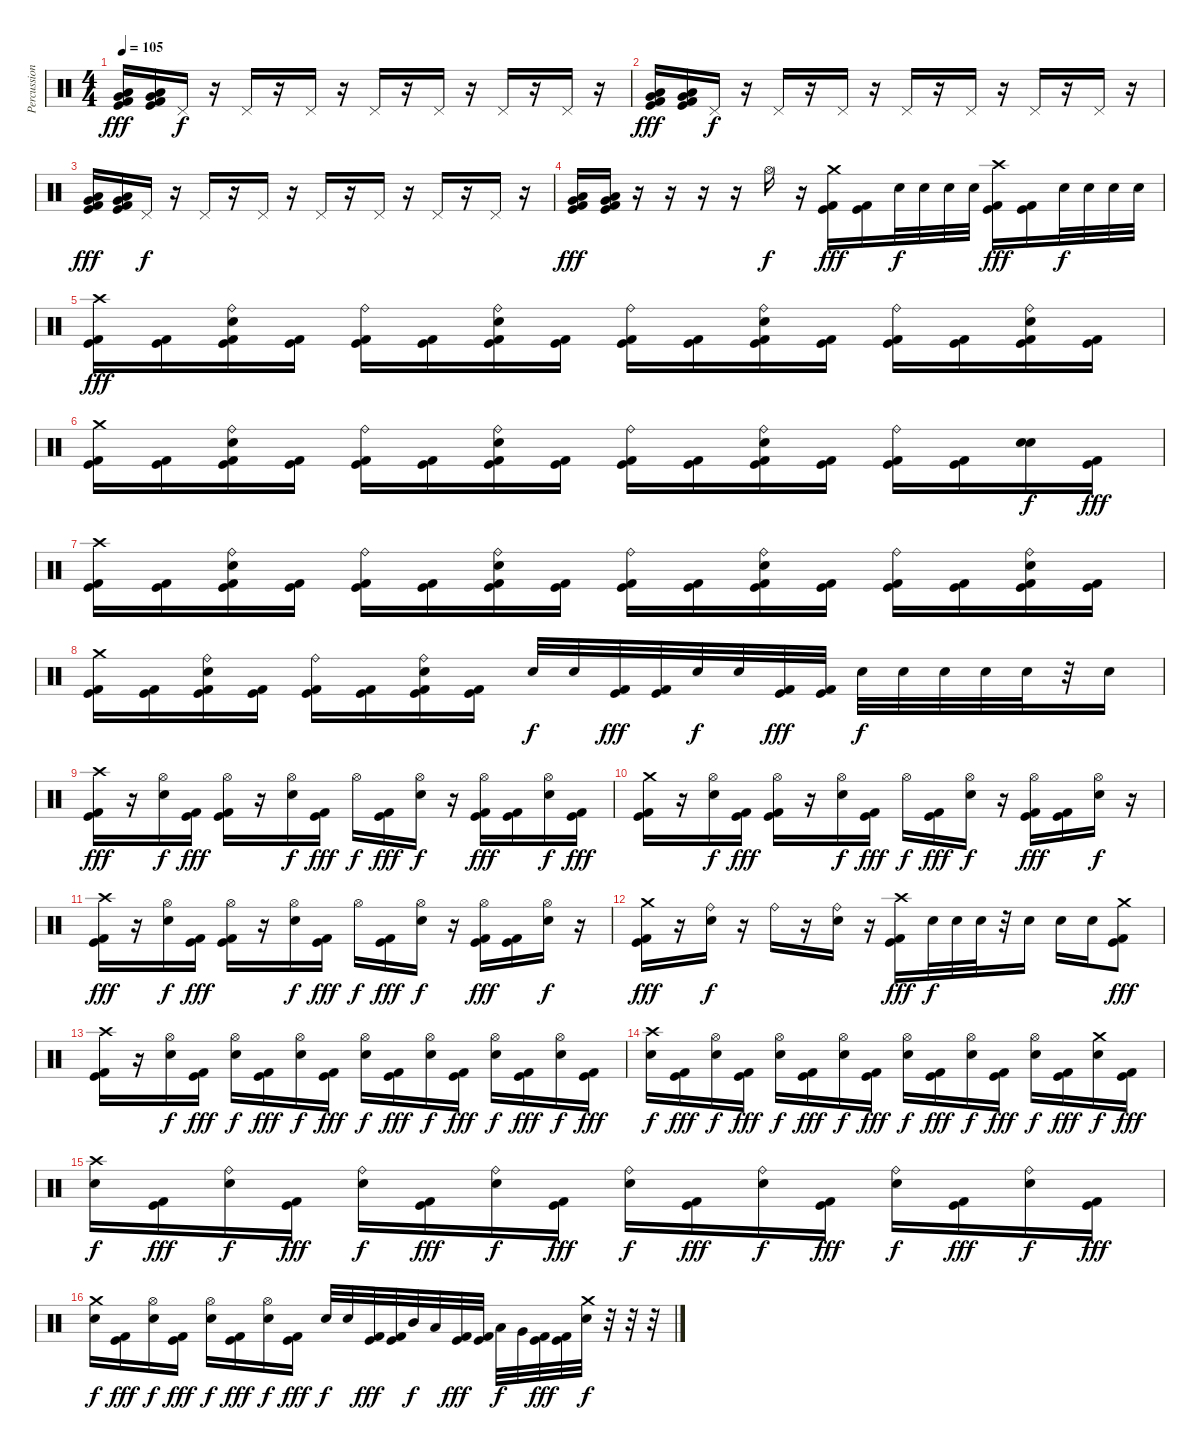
\track ("Percussion" "Percussion") {instrument percussion}
\staff {score}
\articulation defaults
\ts (4 4)
\tempo 105
\clef neutral
\ks c
("Very Low Tom (hit)" "Low Tom (hit)" "Kick (hit)" "Kick (hit) 2").16{dy fff} ("Very Low Tom (hit)" "Low Tom (hit)" "Kick (hit)" "Kick (hit) 2").16 "Pedal Hi-Hat (hit)".16{dy f} r.16 "Pedal Hi-Hat (hit)".16 r.16 "Pedal Hi-Hat (hit)".16 r.16 "Pedal Hi-Hat (hit)".16 r.16 "Pedal Hi-Hat (hit)".16 r.16 "Pedal Hi-Hat (hit)".16 r.16 "Pedal Hi-Hat (hit)".16 r.16 |
("Very Low Tom (hit)" "Low Tom (hit)" "Kick (hit)" "Kick (hit) 2").16{dy fff} ("Very Low Tom (hit)" "Low Tom (hit)" "Kick (hit)" "Kick (hit) 2").16 "Pedal Hi-Hat (hit)".16{dy f} r.16 "Pedal Hi-Hat (hit)".16 r.16 "Pedal Hi-Hat (hit)".16 r.16 "Pedal Hi-Hat (hit)".16 r.16 "Pedal Hi-Hat (hit)".16 r.16 "Pedal Hi-Hat (hit)".16 r.16 "Pedal Hi-Hat (hit)".16 r.16 |
("Very Low Tom (hit)" "Low Tom (hit)" "Kick (hit)" "Kick (hit) 2").16{dy fff} ("Very Low Tom (hit)" "Low Tom (hit)" "Kick (hit)" "Kick (hit) 2").16 "Pedal Hi-Hat (hit)".16{dy f} r.16 "Pedal Hi-Hat (hit)".16 r.16 "Pedal Hi-Hat (hit)".16 r.16 "Pedal Hi-Hat (hit)".16 r.16 "Pedal Hi-Hat (hit)".16 r.16 "Pedal Hi-Hat (hit)".16 r.16 "Pedal Hi-Hat (hit)".16 r.16 |
("Very Low Tom (hit)" "Low Tom (hit)" "Kick (hit)" "Kick (hit) 2").16{dy fff} ("Very Low Tom (hit)" "Low Tom (hit)" "Kick (hit)" "Kick (hit) 2").16 r.16 r.16 r.16 r.16 "Hi-Hat (open)".16{dy f} r.16 ("Crash medium (hit)" "Kick (hit)" "Kick (hit) 2").16{dy fff} ("Kick (hit)" "Kick (hit) 2").16 "Electric Snare (hit)".32{dy f} "Electric Snare (hit)".32 "Electric Snare (hit)".32 "Electric Snare (hit)".32 ("Crash high (hit)" "Kick (hit)" "Kick (hit) 2").16{dy fff} ("Kick (hit)" "Kick (hit) 2").16 "Electric Snare (hit)".32{dy f} "Electric Snare (hit)".32 "Electric Snare (hit)".32 "Electric Snare (hit)".32 |
("Crash high (hit)" "Kick (hit)" "Kick (hit) 2").16{dy fff} ("Kick (hit)" "Kick (hit) 2").16 ("Ride (bell)" "Electric Snare (hit)" "Kick (hit)" "Kick (hit) 2").16 ("Kick (hit)" "Kick (hit) 2").16 ("Ride (bell)" "Kick (hit)" "Kick (hit) 2").16 ("Kick (hit)" "Kick (hit) 2").16 ("Ride (bell)" "Electric Snare (hit)" "Kick (hit)" "Kick (hit) 2").16 ("Kick (hit)" "Kick (hit) 2").16 ("Ride (bell)" "Kick (hit)" "Kick (hit) 2").16 ("Kick (hit)" "Kick (hit) 2").16 ("Ride (bell)" "Electric Snare (hit)" "Kick (hit)" "Kick (hit) 2").16 ("Kick (hit)" "Kick (hit) 2").16 ("Ride (bell)" "Kick (hit)" "Kick (hit) 2").16 ("Kick (hit)" "Kick (hit) 2").16 ("Ride (bell)" "Electric Snare (hit)" "Kick (hit)" "Kick (hit) 2").16 ("Kick (hit)" "Kick (hit) 2").16 |
("Crash medium (hit)" "Kick (hit)" "Kick (hit) 2").16 ("Kick (hit)" "Kick (hit) 2").16 ("Ride (bell)" "Electric Snare (hit)" "Kick (hit)" "Kick (hit) 2").16 ("Kick (hit)" "Kick (hit) 2").16 ("Ride (bell)" "Kick (hit)" "Kick (hit) 2").16 ("Kick (hit)" "Kick (hit) 2").16 ("Ride (bell)" "Electric Snare (hit)" "Kick (hit)" "Kick (hit) 2").16 ("Kick (hit)" "Kick (hit) 2").16 ("Ride (bell)" "Kick (hit)" "Kick (hit) 2").16 ("Kick (hit)" "Kick (hit) 2").16 ("Ride (bell)" "Electric Snare (hit)" "Kick (hit)" "Kick (hit) 2").16 ("Kick (hit)" "Kick (hit) 2").16 ("Ride (bell)" "Kick (hit)" "Kick (hit) 2").16 ("Kick (hit)" "Kick (hit) 2").16 ("Electric Snare (hit)" "Electric Snare (hit)").16{bu 60 dy f} ("Kick (hit)" "Kick (hit) 2").16{dy fff} |
("Crash high (hit)" "Kick (hit)" "Kick (hit) 2").16 ("Kick (hit)" "Kick (hit) 2").16 ("Ride (bell)" "Electric Snare (hit)" "Kick (hit)" "Kick (hit) 2").16 ("Kick (hit)" "Kick (hit) 2").16 ("Ride (bell)" "Kick (hit)" "Kick (hit) 2").16 ("Kick (hit)" "Kick (hit) 2").16 ("Ride (bell)" "Electric Snare (hit)" "Kick (hit)" "Kick (hit) 2").16 ("Kick (hit)" "Kick (hit) 2").16 ("Ride (bell)" "Kick (hit)" "Kick (hit) 2").16 ("Kick (hit)" "Kick (hit) 2").16 ("Ride (bell)" "Electric Snare (hit)" "Kick (hit)" "Kick (hit) 2").16 ("Kick (hit)" "Kick (hit) 2").16 ("Ride (bell)" "Kick (hit)" "Kick (hit) 2").16 ("Kick (hit)" "Kick (hit) 2").16 ("Ride (bell)" "Electric Snare (hit)" "Kick (hit)" "Kick (hit) 2").16 ("Kick (hit)" "Kick (hit) 2").16 |
("Crash medium (hit)" "Kick (hit)" "Kick (hit) 2").16 ("Kick (hit)" "Kick (hit) 2").16 ("Ride (bell)" "Electric Snare (hit)" "Kick (hit)" "Kick (hit) 2").16 ("Kick (hit)" "Kick (hit) 2").16 ("Ride (bell)" "Kick (hit)" "Kick (hit) 2").16 ("Kick (hit)" "Kick (hit) 2").16 ("Ride (bell)" "Electric Snare (hit)" "Kick (hit)" "Kick (hit) 2").16 ("Kick (hit)" "Kick (hit) 2").16 "Electric Snare (hit)".32{dy f} "Electric Snare (hit)".32 ("Kick (hit)" "Kick (hit) 2").32{dy fff} ("Kick (hit)" "Kick (hit) 2").32 "Electric Snare (hit)".32{dy f} "Electric Snare (hit)".32 ("Kick (hit)" "Kick (hit) 2").32{dy fff} ("Kick (hit)" "Kick (hit) 2").32 "Electric Snare (hit)".32{dy f} "Electric Snare (hit)".32 "Electric Snare (hit)".32 "Electric Snare (hit)".32 "Electric Snare (hit)".32 r.32 "Electric Snare (hit)".16 |
("Crash high (hit)" "Kick (hit)" "Kick (hit) 2").16{dy fff} r.16 ("Hi-Hat (open)" "Electric Snare (hit)").16{dy f} ("Kick (hit)" "Kick (hit) 2").16{dy fff} ("Hi-Hat (open)" "Kick (hit)" "Kick (hit) 2").16 r.16 ("Hi-Hat (open)" "Electric Snare (hit)").16{dy f} ("Kick (hit)" "Kick (hit) 2").16{dy fff} "Hi-Hat (open)".16{dy f} ("Kick (hit)" "Kick (hit) 2").16{dy fff} ("Hi-Hat (open)" "Electric Snare (hit)").16{dy f} r.16 ("Hi-Hat (open)" "Kick (hit)" "Kick (hit) 2").16{dy fff} ("Kick (hit)" "Kick (hit) 2").16 ("Hi-Hat (open)" "Electric Snare (hit)").16{dy f} ("Kick (hit)" "Kick (hit) 2").16{dy fff} |
("Crash medium (hit)" "Kick (hit)" "Kick (hit) 2").16 r.16 ("Hi-Hat (open)" "Electric Snare (hit)").16{dy f} ("Kick (hit)" "Kick (hit) 2").16{dy fff} ("Hi-Hat (open)" "Kick (hit)" "Kick (hit) 2").16 r.16 ("Hi-Hat (open)" "Electric Snare (hit)").16{dy f} ("Kick (hit)" "Kick (hit) 2").16{dy fff} "Hi-Hat (open)".16{dy f} ("Kick (hit)" "Kick (hit) 2").16{dy fff} ("Hi-Hat (open)" "Electric Snare (hit)").16{dy f} r.16 ("Hi-Hat (open)" "Kick (hit)" "Kick (hit) 2").16{dy fff} ("Kick (hit)" "Kick (hit) 2").16 ("Hi-Hat (open)" "Electric Snare (hit)").16{dy f} r.16 |
("Crash high (hit)" "Kick (hit)" "Kick (hit) 2").16{dy fff} r.16 ("Hi-Hat (open)" "Electric Snare (hit)").16{dy f} ("Kick (hit)" "Kick (hit) 2").16{dy fff} ("Hi-Hat (open)" "Kick (hit)" "Kick (hit) 2").16 r.16 ("Hi-Hat (open)" "Electric Snare (hit)").16{dy f} ("Kick (hit)" "Kick (hit) 2").16{dy fff} "Hi-Hat (open)".16{dy f} ("Kick (hit)" "Kick (hit) 2").16{dy fff} ("Hi-Hat (open)" "Electric Snare (hit)").16{dy f} r.16 ("Hi-Hat (open)" "Kick (hit)" "Kick (hit) 2").16{dy fff} ("Kick (hit)" "Kick (hit) 2").16 ("Hi-Hat (open)" "Electric Snare (hit)").16{dy f} r.16 |
("Crash medium (hit)" "Kick (hit)" "Kick (hit) 2").16{dy fff} r.16 ("Ride (bell)" "Electric Snare (hit)").16{dy f} r.16 "Ride (bell)".16 r.16 ("Ride (bell)" "Electric Snare (hit)").16 r.16 ("Crash high (hit)" "Kick (hit)" "Kick (hit) 2").16{dy fff} "Electric Snare (hit)".32{dy f} "Electric Snare (hit)".32 "Electric Snare (hit)".32 r.32 "Electric Snare (hit)".16 "Electric Snare (hit)".16 "Electric Snare (hit)".16 ("Crash medium (hit)" "Kick (hit)" "Kick (hit) 2").8{dy fff} |
("Crash high (hit)" "Kick (hit)" "Kick (hit) 2").16 r.16 ("Hi-Hat (open)" "Electric Snare (hit)").16{dy f} ("Kick (hit)" "Kick (hit) 2").16{dy fff} ("Hi-Hat (open)" "Electric Snare (hit)").16{dy f} ("Kick (hit)" "Kick (hit) 2").16{dy fff} ("Hi-Hat (open)" "Electric Snare (hit)").16{dy f} ("Kick (hit)" "Kick (hit) 2").16{dy fff} ("Hi-Hat (open)" "Electric Snare (hit)").16{dy f} ("Kick (hit)" "Kick (hit) 2").16{dy fff} ("Hi-Hat (open)" "Electric Snare (hit)").16{dy f} ("Kick (hit)" "Kick (hit) 2").16{dy fff} ("Hi-Hat (open)" "Electric Snare (hit)").16{dy f} ("Kick (hit)" "Kick (hit) 2").16{dy fff} ("Hi-Hat (open)" "Electric Snare (hit)").16{dy f} ("Kick (hit)" "Kick (hit) 2").16{dy fff} |
("Crash high (hit)" "Electric Snare (hit)").16{dy f} ("Kick (hit)" "Kick (hit) 2").16{dy fff} ("Hi-Hat (open)" "Electric Snare (hit)").16{dy f} ("Kick (hit)" "Kick (hit) 2").16{dy fff} ("Hi-Hat (open)" "Electric Snare (hit)").16{dy f} ("Kick (hit)" "Kick (hit) 2").16{dy fff} ("Hi-Hat (open)" "Electric Snare (hit)").16{dy f} ("Kick (hit)" "Kick (hit) 2").16{dy fff} ("Hi-Hat (open)" "Electric Snare (hit)").16{dy f} ("Kick (hit)" "Kick (hit) 2").16{dy fff} ("Hi-Hat (open)" "Electric Snare (hit)").16{dy f} ("Kick (hit)" "Kick (hit) 2").16{dy fff} ("Hi-Hat (open)" "Electric Snare (hit)").16{dy f} ("Kick (hit)" "Kick (hit) 2").16{dy fff} ("Crash medium (hit)" "Electric Snare (hit)").16{dy f} ("Kick (hit)" "Kick (hit) 2").16{dy fff} |
("Crash high (hit)" "Electric Snare (hit)").16{dy f} ("Kick (hit)" "Kick (hit) 2").16{dy fff} ("Ride (bell)" "Electric Snare (hit)").16{dy f} ("Kick (hit)" "Kick (hit) 2").16{dy fff} ("Ride (bell)" "Electric Snare (hit)").16{dy f} ("Kick (hit)" "Kick (hit) 2").16{dy fff} ("Ride (bell)" "Electric Snare (hit)").16{dy f} ("Kick (hit)" "Kick (hit) 2").16{dy fff} ("Ride (bell)" "Electric Snare (hit)").16{dy f} ("Kick (hit)" "Kick (hit) 2").16{dy fff} ("Ride (bell)" "Electric Snare (hit)").16{dy f} ("Kick (hit)" "Kick (hit) 2").16{dy fff} ("Ride (bell)" "Electric Snare (hit)").16{dy f} ("Kick (hit)" "Kick (hit) 2").16{dy fff} ("Ride (bell)" "Electric Snare (hit)").16{dy f} ("Kick (hit)" "Kick (hit) 2").16{dy fff} |
("Crash medium (hit)" "Electric Snare (hit)").16{dy f} ("Kick (hit)" "Kick (hit) 2").16{dy fff} ("Hi-Hat (open)" "Electric Snare (hit)").16{dy f} ("Kick (hit)" "Kick (hit) 2").16{dy fff} ("Hi-Hat (open)" "Electric Snare (hit)").16{dy f} ("Kick (hit)" "Kick (hit) 2").16{dy fff} ("Hi-Hat (open)" "Electric Snare (hit)").16{dy f} ("Kick (hit)" "Kick (hit) 2").16{dy fff} "Electric Snare (hit)".32{dy f} "Electric Snare (hit)".32 ("Kick (hit)" "Kick (hit) 2").32{dy fff} ("Kick (hit)" "Kick (hit) 2").32 "Mid Tom (hit)".32{dy f} "Low Tom (hit)".32 ("Kick (hit)" "Kick (hit) 2").32{dy fff} ("Kick (hit)" "Kick (hit) 2").32 "Low Tom (hit)".32{dy f} "Very Low Tom (hit)".32 ("Kick (hit)" "Kick (hit) 2").32{dy fff} ("Kick (hit)" "Kick (hit) 2").32 ("Crash medium (hit)" "Electric Snare (hit)").32{dy f} r.32 r.32 r.32
